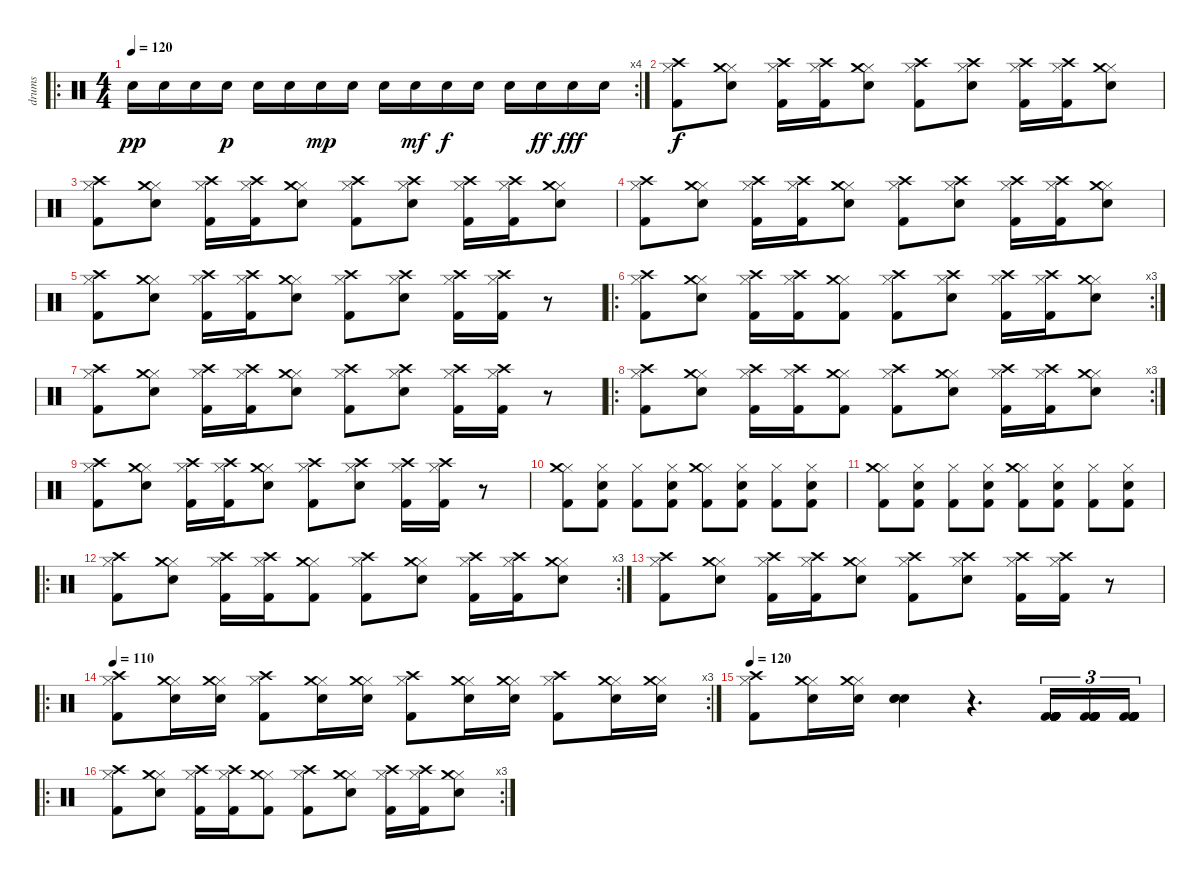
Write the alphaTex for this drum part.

\track ("drums" "drums") {instrument percussion}
\staff {score}
\articulation defaults
\ro
\rc 4
\ts (4 4)
\tempo 120
\clef neutral
\ks c "Snare (hit) 2".16{dy pp} "Snare (hit) 2".16 "Snare (hit) 2".16 "Snare (hit) 2".16{dy p} "Snare (hit) 2".16 "Snare (hit) 2".16 "Snare (hit) 2".16{dy mp} "Snare (hit) 2".16 "Snare (hit) 2".16 "Snare (hit) 2".16{dy mf} "Snare (hit) 2".16{dy f} "Snare (hit) 2".16 "Snare (hit) 2".16 "Snare (hit) 2".16{dy ff} "Snare (hit) 2".16{dy fff} "Snare (hit) 2".16
|
("Hi-Hat (closed)" "Crash high (hit)" "Kick (hit) 2").8{dy f} ("Hi-Hat (closed)" "Crash medium (hit)" "Snare (hit) 2").8 ("Hi-Hat (closed)" "Crash high (hit)" "Kick (hit) 2").16 ("Hi-Hat (closed)" "Crash high (hit)" "Kick (hit) 2").16 ("Hi-Hat (closed)" "Crash medium (hit)" "Snare (hit) 2").8 ("Hi-Hat (closed)" "Crash high (hit)" "Kick (hit) 2").8 ("Hi-Hat (closed)" "Crash high (hit)" "Snare (hit) 2").8 ("Hi-Hat (closed)" "Crash high (hit)" "Kick (hit) 2").16 ("Hi-Hat (closed)" "Crash high (hit)" "Kick (hit) 2").16 ("Hi-Hat (closed)" "Crash medium (hit)" "Snare (hit) 2").8 |
("Hi-Hat (closed)" "Crash high (hit)" "Kick (hit) 2").8 ("Hi-Hat (closed)" "Crash medium (hit)" "Snare (hit) 2").8 ("Hi-Hat (closed)" "Crash high (hit)" "Kick (hit) 2").16 ("Hi-Hat (closed)" "Crash high (hit)" "Kick (hit) 2").16 ("Hi-Hat (closed)" "Crash medium (hit)" "Snare (hit) 2").8 ("Hi-Hat (closed)" "Crash high (hit)" "Kick (hit) 2").8 ("Hi-Hat (closed)" "Crash high (hit)" "Snare (hit) 2").8 ("Hi-Hat (closed)" "Crash high (hit)" "Kick (hit) 2").16 ("Hi-Hat (closed)" "Crash high (hit)" "Kick (hit) 2").16 ("Hi-Hat (closed)" "Crash medium (hit)" "Snare (hit) 2").8 |
("Hi-Hat (closed)" "Crash high (hit)" "Kick (hit) 2").8 ("Hi-Hat (closed)" "Crash medium (hit)" "Snare (hit) 2").8 ("Hi-Hat (closed)" "Crash high (hit)" "Kick (hit) 2").16 ("Hi-Hat (closed)" "Crash high (hit)" "Kick (hit) 2").16 ("Hi-Hat (closed)" "Crash medium (hit)" "Snare (hit) 2").8 ("Hi-Hat (closed)" "Crash high (hit)" "Kick (hit) 2").8 ("Hi-Hat (closed)" "Crash high (hit)" "Snare (hit) 2").8 ("Hi-Hat (closed)" "Crash high (hit)" "Kick (hit) 2").16 ("Hi-Hat (closed)" "Crash high (hit)" "Kick (hit) 2").16 ("Hi-Hat (closed)" "Crash medium (hit)" "Snare (hit) 2").8 |
("Hi-Hat (closed)" "Crash high (hit)" "Kick (hit) 2").8 ("Hi-Hat (closed)" "Crash medium (hit)" "Snare (hit) 2").8 ("Hi-Hat (closed)" "Crash high (hit)" "Kick (hit) 2").16 ("Hi-Hat (closed)" "Crash high (hit)" "Kick (hit) 2").16 ("Hi-Hat (closed)" "Crash medium (hit)" "Snare (hit) 2").8 ("Hi-Hat (closed)" "Crash high (hit)" "Kick (hit) 2").8 ("Hi-Hat (closed)" "Crash high (hit)" "Snare (hit) 2").8 ("Hi-Hat (closed)" "Crash high (hit)" "Kick (hit) 2").16 ("Hi-Hat (closed)" "Crash high (hit)" "Kick (hit) 2").16 r.8 |
\ro
\rc 3
("Hi-Hat (closed)" "Crash high (hit)" "Kick (hit) 2").8 ("Hi-Hat (closed)" "Crash medium (hit)" "Snare (hit) 2").8 ("Hi-Hat (closed)" "Crash high (hit)" "Kick (hit) 2").16 ("Hi-Hat (closed)" "Crash high (hit)" "Kick (hit) 2").16 ("Hi-Hat (closed)" "Crash medium (hit)" "Kick (hit) 2").8 ("Hi-Hat (closed)" "Crash high (hit)" "Kick (hit) 2").8 ("Hi-Hat (closed)" "Crash high (hit)" "Snare (hit) 2").8 ("Hi-Hat (closed)" "Crash high (hit)" "Kick (hit) 2").16 ("Hi-Hat (closed)" "Crash high (hit)" "Kick (hit) 2").16 ("Hi-Hat (closed)" "Crash medium (hit)" "Snare (hit) 2").8 |
("Hi-Hat (closed)" "Crash high (hit)" "Kick (hit) 2").8 ("Hi-Hat (closed)" "Crash medium (hit)" "Snare (hit) 2").8 ("Hi-Hat (closed)" "Crash high (hit)" "Kick (hit) 2").16 ("Hi-Hat (closed)" "Crash high (hit)" "Kick (hit) 2").16 ("Hi-Hat (closed)" "Crash medium (hit)" "Snare (hit) 2").8 ("Hi-Hat (closed)" "Crash high (hit)" "Kick (hit) 2").8 ("Hi-Hat (closed)" "Crash high (hit)" "Snare (hit) 2").8 ("Hi-Hat (closed)" "Crash high (hit)" "Kick (hit) 2").16 ("Hi-Hat (closed)" "Crash high (hit)" "Kick (hit) 2").16 r.8 |
\ro
\rc 3
("Hi-Hat (closed)" "Crash high (hit)" "Kick (hit) 2").8 ("Hi-Hat (closed)" "Crash medium (hit)" "Snare (hit) 2").8 ("Hi-Hat (closed)" "Crash high (hit)" "Kick (hit) 2").16 ("Hi-Hat (closed)" "Crash high (hit)" "Kick (hit) 2").16 ("Hi-Hat (closed)" "Crash medium (hit)" "Kick (hit) 2").8 ("Hi-Hat (closed)" "Crash high (hit)" "Kick (hit) 2").8 ("Hi-Hat (closed)" "Crash medium (hit)" "Snare (hit) 2").8 ("Hi-Hat (closed)" "Crash high (hit)" "Kick (hit) 2").16 ("Hi-Hat (closed)" "Crash high (hit)" "Kick (hit) 2").16 ("Hi-Hat (closed)" "Crash medium (hit)" "Snare (hit) 2").8 |
("Hi-Hat (closed)" "Crash high (hit)" "Kick (hit) 2").8 ("Hi-Hat (closed)" "Crash medium (hit)" "Snare (hit) 2").8 ("Hi-Hat (closed)" "Crash high (hit)" "Kick (hit) 2").16 ("Hi-Hat (closed)" "Crash high (hit)" "Kick (hit) 2").16 ("Hi-Hat (closed)" "Crash medium (hit)" "Snare (hit) 2").8 ("Hi-Hat (closed)" "Crash high (hit)" "Kick (hit) 2").8 ("Hi-Hat (closed)" "Crash high (hit)" "Snare (hit) 2").8 ("Hi-Hat (closed)" "Crash high (hit)" "Kick (hit) 2").16 ("Hi-Hat (closed)" "Crash high (hit)" "Kick (hit) 2").16 r.8 |
("Hi-Hat (closed)" "Crash medium (hit)" "Kick (hit) 2").8 ("Hi-Hat (closed)" "Snare (hit) 2" "Kick (hit) 2").8 ("Hi-Hat (closed)" "Kick (hit) 2").8 ("Hi-Hat (closed)" "Snare (hit) 2" "Kick (hit) 2").8 ("Hi-Hat (closed)" "Crash medium (hit)" "Kick (hit) 2").8 ("Hi-Hat (closed)" "Snare (hit) 2" "Kick (hit) 2").8 ("Hi-Hat (closed)" "Kick (hit) 2").8 ("Hi-Hat (closed)" "Snare (hit) 2" "Kick (hit) 2").8 |
("Hi-Hat (closed)" "Crash medium (hit)" "Kick (hit) 2").8 ("Hi-Hat (closed)" "Snare (hit) 2" "Kick (hit) 2").8 ("Hi-Hat (closed)" "Kick (hit) 2").8 ("Hi-Hat (closed)" "Snare (hit) 2" "Kick (hit) 2").8 ("Hi-Hat (closed)" "Crash medium (hit)" "Kick (hit) 2").8 ("Hi-Hat (closed)" "Snare (hit) 2" "Kick (hit) 2").8 ("Hi-Hat (closed)" "Kick (hit) 2").8 ("Hi-Hat (closed)" "Snare (hit) 2" "Kick (hit) 2").8 |
\ro
\rc 3
("Hi-Hat (closed)" "Crash high (hit)" "Kick (hit) 2").8 ("Hi-Hat (closed)" "Crash medium (hit)" "Snare (hit) 2").8 ("Hi-Hat (closed)" "Crash high (hit)" "Kick (hit) 2").16 ("Hi-Hat (closed)" "Crash high (hit)" "Kick (hit) 2").16 ("Hi-Hat (closed)" "Crash medium (hit)" "Kick (hit) 2").8 ("Hi-Hat (closed)" "Crash high (hit)" "Kick (hit) 2").8 ("Hi-Hat (closed)" "Crash medium (hit)" "Snare (hit) 2").8 ("Hi-Hat (closed)" "Crash high (hit)" "Kick (hit) 2").16 ("Hi-Hat (closed)" "Crash high (hit)" "Kick (hit) 2").16 ("Hi-Hat (closed)" "Crash medium (hit)" "Snare (hit) 2").8 |
("Hi-Hat (closed)" "Crash high (hit)" "Kick (hit) 2").8 ("Hi-Hat (closed)" "Crash medium (hit)" "Snare (hit) 2").8 ("Hi-Hat (closed)" "Crash high (hit)" "Kick (hit) 2").16 ("Hi-Hat (closed)" "Crash high (hit)" "Kick (hit) 2").16 ("Hi-Hat (closed)" "Crash medium (hit)" "Snare (hit) 2").8 ("Hi-Hat (closed)" "Crash high (hit)" "Kick (hit) 2").8 ("Hi-Hat (closed)" "Crash high (hit)" "Snare (hit) 2").8 ("Hi-Hat (closed)" "Crash high (hit)" "Kick (hit) 2").16 ("Hi-Hat (closed)" "Crash high (hit)" "Kick (hit) 2").16 r.8 |
\ro
\rc 3
\tempo 110
("Hi-Hat (closed)" "Crash high (hit)" "Kick (hit) 2").8 ("Hi-Hat (closed)" "Crash medium (hit)" "Snare (hit) 2").16 ("Hi-Hat (closed)" "Crash medium (hit)" "Snare (hit) 2").16 ("Hi-Hat (closed)" "Crash high (hit)" "Kick (hit) 2").8 ("Hi-Hat (closed)" "Crash medium (hit)" "Snare (hit) 2").16 ("Hi-Hat (closed)" "Crash medium (hit)" "Snare (hit) 2").16 ("Hi-Hat (closed)" "Crash high (hit)" "Kick (hit) 2").8 ("Hi-Hat (closed)" "Crash medium (hit)" "Snare (hit) 2").16 ("Hi-Hat (closed)" "Crash medium (hit)" "Snare (hit) 2").16 ("Hi-Hat (closed)" "Crash high (hit)" "Kick (hit) 2").8 ("Hi-Hat (closed)" "Crash medium (hit)" "Snare (hit) 2").16 ("Hi-Hat (closed)" "Crash medium (hit)" "Snare (hit) 2").16 |
\tempo 120
("Hi-Hat (closed)" "Crash high (hit)" "Kick (hit) 2").8 ("Hi-Hat (closed)" "Crash medium (hit)" "Snare (hit) 2").16 ("Hi-Hat (closed)" "Crash medium (hit)" "Snare (hit) 2").16 ("Snare (hit) 2" "Snare (hit) 2" "Snare (hit) 2").4 r.4{d} ("Kick (hit) 2" "Kick (hit) 2" "Kick (hit) 2" "Kick (hit) 2" "Kick (hit) 2" "Kick (hit) 2").16{tu (3 2)} ("Kick (hit) 2" "Kick (hit) 2" "Kick (hit) 2" "Kick (hit) 2" "Kick (hit) 2" "Kick (hit) 2").16{tu (3 2)} ("Kick (hit) 2" "Kick (hit) 2" "Kick (hit) 2" "Kick (hit) 2" "Kick (hit) 2" "Kick (hit) 2").16{tu (3 2)} |
\ro
\rc 3
("Hi-Hat (closed)" "Crash high (hit)" "Kick (hit) 2").8 ("Hi-Hat (closed)" "Crash medium (hit)" "Snare (hit) 2").8 ("Hi-Hat (closed)" "Crash high (hit)" "Kick (hit) 2").16 ("Hi-Hat (closed)" "Crash high (hit)" "Kick (hit) 2").16 ("Hi-Hat (closed)" "Crash medium (hit)" "Kick (hit) 2").8 ("Hi-Hat (closed)" "Crash high (hit)" "Kick (hit) 2").8 ("Hi-Hat (closed)" "Crash medium (hit)" "Snare (hit) 2").8 ("Hi-Hat (closed)" "Crash high (hit)" "Kick (hit) 2").16 ("Hi-Hat (closed)" "Crash high (hit)" "Kick (hit) 2").16 ("Hi-Hat (closed)" "Crash medium (hit)" "Snare (hit) 2").8
